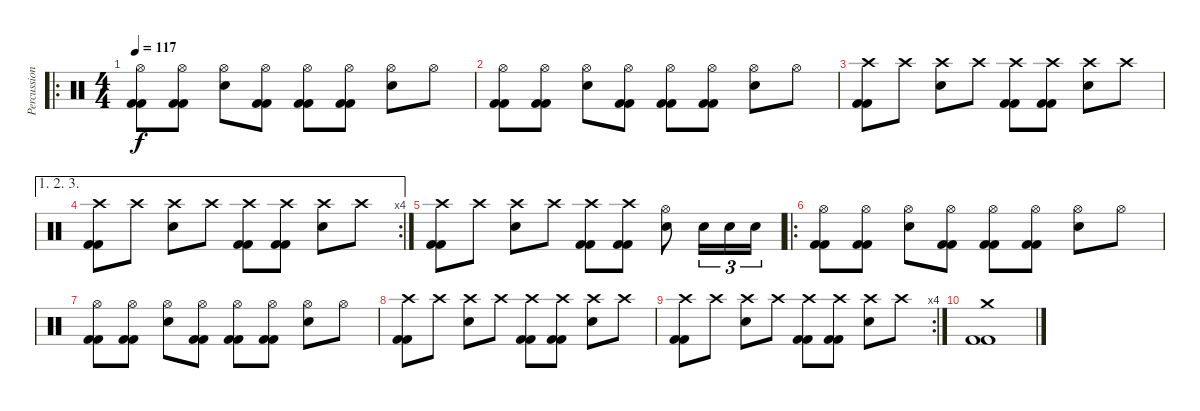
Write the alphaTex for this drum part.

\track ("Percussions" "Percussion") {instrument percussion}
\staff {score}
\articulation defaults
\ro
\ts (4 4)
\tempo 117
\clef neutral
\ks c
("Kick (hit) 2" "Kick (hit) 2" "Hi-Hat (open)").8{dy f} ("Kick (hit) 2" "Kick (hit) 2" "Hi-Hat (open)").8 ("Snare (hit) 2" "Hi-Hat (open)").8 ("Kick (hit) 2" "Kick (hit) 2" "Hi-Hat (open)").8 ("Kick (hit) 2" "Kick (hit) 2" "Hi-Hat (open)").8 ("Kick (hit) 2" "Kick (hit) 2" "Hi-Hat (open)").8 ("Snare (hit) 2" "Hi-Hat (open)").8 "Hi-Hat (open)".8 |
("Kick (hit) 2" "Kick (hit) 2" "Hi-Hat (open)").8 ("Kick (hit) 2" "Kick (hit) 2" "Hi-Hat (open)").8 ("Snare (hit) 2" "Hi-Hat (open)").8 ("Kick (hit) 2" "Kick (hit) 2" "Hi-Hat (open)").8 ("Kick (hit) 2" "Kick (hit) 2" "Hi-Hat (open)").8 ("Kick (hit) 2" "Kick (hit) 2" "Hi-Hat (open)").8 ("Snare (hit) 2" "Hi-Hat (open)").8 "Hi-Hat (open)".8 |
("Kick (hit) 2" "Kick (hit) 2" "Crash high (hit)").8 "Crash high (hit)".8 ("Snare (hit) 2" "Crash high (hit)").8 "Crash high (hit)".8 ("Kick (hit) 2" "Kick (hit) 2" "Crash high (hit)").8 ("Kick (hit) 2" "Kick (hit) 2" "Crash high (hit)").8 ("Snare (hit) 2" "Crash high (hit)").8 "Crash high (hit)".8 |
\ae (1 2 3)
\rc 4
("Kick (hit) 2" "Kick (hit) 2" "Crash high (hit)").8 "Crash high (hit)".8 ("Snare (hit) 2" "Crash high (hit)").8 "Crash high (hit)".8 ("Kick (hit) 2" "Kick (hit) 2" "Crash high (hit)").8 ("Kick (hit) 2" "Kick (hit) 2" "Crash high (hit)").8 ("Snare (hit) 2" "Crash high (hit)").8 "Crash high (hit)".8 |
("Kick (hit) 2" "Kick (hit) 2" "Crash high (hit)").8 "Crash high (hit)".8 ("Snare (hit) 2" "Crash high (hit)").8 "Crash high (hit)".8 ("Kick (hit) 2" "Kick (hit) 2" "Crash high (hit)").8 ("Kick (hit) 2" "Kick (hit) 2" "Crash high (hit)").8 ("Snare (hit) 2" "Hi-Hat (open)").8 "Snare (hit) 2".16{tu (3 2)} "Snare (hit) 2".16{tu (3 2)} "Snare (hit) 2".16{tu (3 2)} |
\ro
("Kick (hit) 2" "Kick (hit) 2" "Hi-Hat (open)").8 ("Kick (hit) 2" "Kick (hit) 2" "Hi-Hat (open)").8 ("Snare (hit) 2" "Hi-Hat (open)").8 ("Kick (hit) 2" "Kick (hit) 2" "Hi-Hat (open)").8 ("Kick (hit) 2" "Kick (hit) 2" "Hi-Hat (open)").8 ("Kick (hit) 2" "Kick (hit) 2" "Hi-Hat (open)").8 ("Snare (hit) 2" "Hi-Hat (open)").8 "Hi-Hat (open)".8 |
("Kick (hit) 2" "Kick (hit) 2" "Hi-Hat (open)").8 ("Kick (hit) 2" "Kick (hit) 2" "Hi-Hat (open)").8 ("Snare (hit) 2" "Hi-Hat (open)").8 ("Kick (hit) 2" "Kick (hit) 2" "Hi-Hat (open)").8 ("Kick (hit) 2" "Kick (hit) 2" "Hi-Hat (open)").8 ("Kick (hit) 2" "Kick (hit) 2" "Hi-Hat (open)").8 ("Snare (hit) 2" "Hi-Hat (open)").8 "Hi-Hat (open)".8 |
("Kick (hit) 2" "Kick (hit) 2" "Crash high (hit)").8 "Crash high (hit)".8 ("Snare (hit) 2" "Crash high (hit)").8 "Crash high (hit)".8 ("Kick (hit) 2" "Kick (hit) 2" "Crash high (hit)").8 ("Kick (hit) 2" "Kick (hit) 2" "Crash high (hit)").8 ("Snare (hit) 2" "Crash high (hit)").8 "Crash high (hit)".8 |
\rc 4
("Kick (hit) 2" "Kick (hit) 2" "Crash high (hit)").8 "Crash high (hit)".8 ("Snare (hit) 2" "Crash high (hit)").8 "Crash high (hit)".8 ("Kick (hit) 2" "Kick (hit) 2" "Crash high (hit)").8 ("Kick (hit) 2" "Kick (hit) 2" "Crash high (hit)").8 ("Snare (hit) 2" "Crash high (hit)").8 "Crash high (hit)".8 |
("Kick (hit) 2" "Kick (hit) 2" "Crash medium (hit)").1
